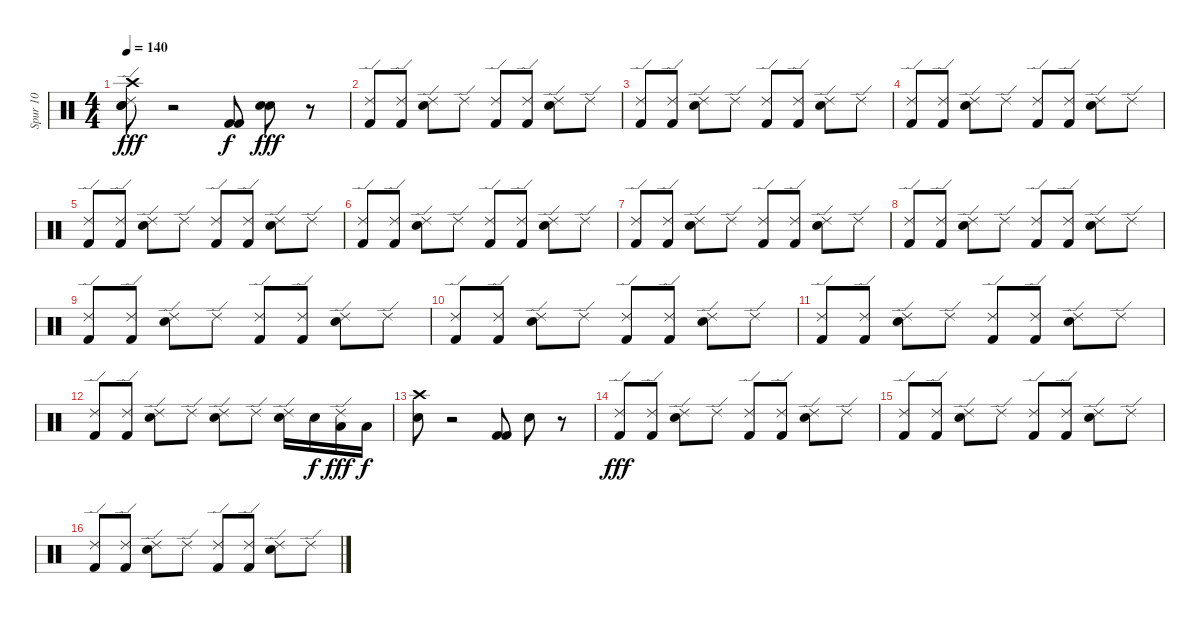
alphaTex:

\track ("Spur 10" "Spur 10") {instrument percussion}
\staff {score}
\articulation defaults
\ts (4 4)
\tempo 140
\clef neutral
\ks c
("Snare (hit) 2" "Ride (edge) 2" "Crash high (hit)" "Electric Snare (hit)").8{dy fff} r.2 ("Kick (hit) 2" "Kick (hit) 2").8{dy f} ("Snare (hit) 2" "Electric Snare (hit)").8{dy fff} r.8 |
("Ride (edge) 2" "Kick (hit) 2").8 ("Ride (edge) 2" "Kick (hit) 2").8 ("Ride (edge) 2" "Electric Snare (hit)").8 "Ride (edge) 2".8 ("Ride (edge) 2" "Kick (hit) 2").8 ("Ride (edge) 2" "Kick (hit) 2").8 ("Ride (edge) 2" "Electric Snare (hit)").8 "Ride (edge) 2".8 |
("Ride (edge) 2" "Kick (hit) 2").8 ("Ride (edge) 2" "Kick (hit) 2").8 ("Ride (edge) 2" "Electric Snare (hit)").8 "Ride (edge) 2".8 ("Ride (edge) 2" "Kick (hit) 2").8 ("Ride (edge) 2" "Kick (hit) 2").8 ("Ride (edge) 2" "Electric Snare (hit)").8 "Ride (edge) 2".8 |
("Ride (edge) 2" "Kick (hit) 2").8 ("Ride (edge) 2" "Kick (hit) 2").8 ("Ride (edge) 2" "Electric Snare (hit)").8 "Ride (edge) 2".8 ("Ride (edge) 2" "Kick (hit) 2").8 ("Ride (edge) 2" "Kick (hit) 2").8 ("Ride (edge) 2" "Electric Snare (hit)").8 "Ride (edge) 2".8 |
("Ride (edge) 2" "Kick (hit) 2").8 ("Ride (edge) 2" "Kick (hit) 2").8 ("Ride (edge) 2" "Electric Snare (hit)").8 "Ride (edge) 2".8 ("Ride (edge) 2" "Kick (hit) 2").8 ("Ride (edge) 2" "Kick (hit) 2").8 ("Ride (edge) 2" "Electric Snare (hit)").8 "Ride (edge) 2".8 |
("Ride (edge) 2" "Kick (hit) 2").8 ("Ride (edge) 2" "Kick (hit) 2").8 ("Ride (edge) 2" "Electric Snare (hit)").8 "Ride (edge) 2".8 ("Ride (edge) 2" "Kick (hit) 2").8 ("Ride (edge) 2" "Kick (hit) 2").8 ("Ride (edge) 2" "Electric Snare (hit)").8 "Ride (edge) 2".8 |
("Ride (edge) 2" "Kick (hit) 2").8 ("Ride (edge) 2" "Kick (hit) 2").8 ("Ride (edge) 2" "Electric Snare (hit)").8 "Ride (edge) 2".8 ("Ride (edge) 2" "Kick (hit) 2").8 ("Ride (edge) 2" "Kick (hit) 2").8 ("Ride (edge) 2" "Electric Snare (hit)").8 "Ride (edge) 2".8 |
("Ride (edge) 2" "Kick (hit) 2").8 ("Ride (edge) 2" "Kick (hit) 2").8 ("Ride (edge) 2" "Electric Snare (hit)").8 "Ride (edge) 2".8 ("Ride (edge) 2" "Kick (hit) 2").8 ("Ride (edge) 2" "Kick (hit) 2").8 ("Ride (edge) 2" "Electric Snare (hit)").8 "Ride (edge) 2".8 |
("Ride (edge) 2" "Kick (hit) 2").8 ("Ride (edge) 2" "Kick (hit) 2").8 ("Ride (edge) 2" "Electric Snare (hit)").8 "Ride (edge) 2".8 ("Ride (edge) 2" "Kick (hit) 2").8 ("Ride (edge) 2" "Kick (hit) 2").8 ("Ride (edge) 2" "Electric Snare (hit)").8 "Ride (edge) 2".8 |
("Ride (edge) 2" "Kick (hit) 2").8 ("Ride (edge) 2" "Kick (hit) 2").8 ("Ride (edge) 2" "Electric Snare (hit)").8 "Ride (edge) 2".8 ("Ride (edge) 2" "Kick (hit) 2").8 ("Ride (edge) 2" "Kick (hit) 2").8 ("Ride (edge) 2" "Electric Snare (hit)").8 "Ride (edge) 2".8 |
("Ride (edge) 2" "Kick (hit) 2").8 ("Ride (edge) 2" "Kick (hit) 2").8 ("Ride (edge) 2" "Electric Snare (hit)").8 "Ride (edge) 2".8 ("Ride (edge) 2" "Kick (hit) 2").8 ("Ride (edge) 2" "Kick (hit) 2").8 ("Ride (edge) 2" "Electric Snare (hit)").8 "Ride (edge) 2".8 |
("Ride (edge) 2" "Kick (hit) 2").8 ("Ride (edge) 2" "Kick (hit) 2").8 ("Ride (edge) 2" "Electric Snare (hit)").8 "Ride (edge) 2".8 ("Ride (edge) 2" "Electric Snare (hit)").8 "Ride (edge) 2".8 ("Ride (edge) 2" "Snare (hit) 2").16 "Snare (hit) 2".16{dy f} ("Ride (edge) 2" "Low Tom (hit)").16{dy fff} "Low Tom (hit)".16{dy f} |
("Crash high (hit)" "Electric Snare (hit)").8 r.2 ("Kick (hit) 2" "Kick (hit) 2").8 "Electric Snare (hit)".8 r.8 |
("Ride (edge) 2" "Kick (hit) 2").8{dy fff} ("Ride (edge) 2" "Kick (hit) 2").8 ("Ride (edge) 2" "Electric Snare (hit)").8 "Ride (edge) 2".8 ("Ride (edge) 2" "Kick (hit) 2").8 ("Ride (edge) 2" "Kick (hit) 2").8 ("Ride (edge) 2" "Electric Snare (hit)").8 "Ride (edge) 2".8 |
("Ride (edge) 2" "Kick (hit) 2").8 ("Ride (edge) 2" "Kick (hit) 2").8 ("Ride (edge) 2" "Electric Snare (hit)").8 "Ride (edge) 2".8 ("Ride (edge) 2" "Kick (hit) 2").8 ("Ride (edge) 2" "Kick (hit) 2").8 ("Ride (edge) 2" "Electric Snare (hit)").8 "Ride (edge) 2".8 |
("Ride (edge) 2" "Kick (hit) 2").8 ("Ride (edge) 2" "Kick (hit) 2").8 ("Ride (edge) 2" "Electric Snare (hit)").8 "Ride (edge) 2".8 ("Ride (edge) 2" "Kick (hit) 2").8 ("Ride (edge) 2" "Kick (hit) 2").8 ("Ride (edge) 2" "Electric Snare (hit)").8 "Ride (edge) 2".8
